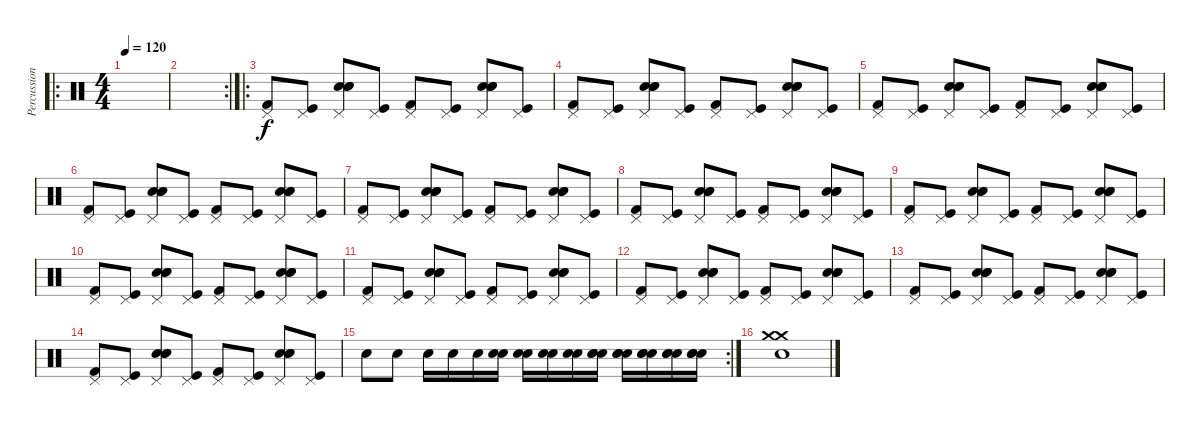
\track ("Percussions julien" "Percussion") {instrument percussion}
\staff {score}
\articulation defaults
\ro
\ts (4 4)
\tempo 120
\clef neutral
\ks c
|
\rc 2
|
\ro
("Kick (hit) 2" "Pedal Hi-Hat (hit)").8 ("Kick (hit)" "Pedal Hi-Hat (hit)").8 ("Electric Snare (hit)" "Electric Snare (hit)" "Pedal Hi-Hat (hit)" "Electric Snare (hit)").8 ("Kick (hit)" "Pedal Hi-Hat (hit)").8 ("Kick (hit) 2" "Pedal Hi-Hat (hit)").8 ("Kick (hit)" "Pedal Hi-Hat (hit)").8 ("Electric Snare (hit)" "Electric Snare (hit)" "Pedal Hi-Hat (hit)" "Electric Snare (hit)").8 ("Kick (hit)" "Pedal Hi-Hat (hit)").8 |
("Kick (hit) 2" "Pedal Hi-Hat (hit)").8 ("Kick (hit)" "Pedal Hi-Hat (hit)").8 ("Electric Snare (hit)" "Electric Snare (hit)" "Pedal Hi-Hat (hit)" "Electric Snare (hit)").8 ("Kick (hit)" "Pedal Hi-Hat (hit)").8 ("Kick (hit) 2" "Pedal Hi-Hat (hit)").8 ("Kick (hit)" "Pedal Hi-Hat (hit)").8 ("Electric Snare (hit)" "Electric Snare (hit)" "Pedal Hi-Hat (hit)" "Electric Snare (hit)").8 ("Kick (hit)" "Pedal Hi-Hat (hit)").8 |
("Kick (hit) 2" "Pedal Hi-Hat (hit)").8 ("Kick (hit)" "Pedal Hi-Hat (hit)").8 ("Electric Snare (hit)" "Electric Snare (hit)" "Pedal Hi-Hat (hit)" "Electric Snare (hit)").8 ("Kick (hit)" "Pedal Hi-Hat (hit)").8 ("Kick (hit) 2" "Pedal Hi-Hat (hit)").8 ("Kick (hit)" "Pedal Hi-Hat (hit)").8 ("Electric Snare (hit)" "Electric Snare (hit)" "Pedal Hi-Hat (hit)" "Electric Snare (hit)").8 ("Kick (hit)" "Pedal Hi-Hat (hit)").8 |
("Kick (hit) 2" "Pedal Hi-Hat (hit)").8 ("Kick (hit)" "Pedal Hi-Hat (hit)").8 ("Electric Snare (hit)" "Electric Snare (hit)" "Pedal Hi-Hat (hit)" "Electric Snare (hit)").8 ("Kick (hit)" "Pedal Hi-Hat (hit)").8 ("Kick (hit) 2" "Pedal Hi-Hat (hit)").8 ("Kick (hit)" "Pedal Hi-Hat (hit)").8 ("Electric Snare (hit)" "Electric Snare (hit)" "Pedal Hi-Hat (hit)" "Electric Snare (hit)").8 ("Kick (hit)" "Pedal Hi-Hat (hit)").8 |
("Kick (hit) 2" "Pedal Hi-Hat (hit)").8 ("Kick (hit)" "Pedal Hi-Hat (hit)").8 ("Electric Snare (hit)" "Electric Snare (hit)" "Pedal Hi-Hat (hit)" "Electric Snare (hit)").8 ("Kick (hit)" "Pedal Hi-Hat (hit)").8 ("Kick (hit) 2" "Pedal Hi-Hat (hit)").8 ("Kick (hit)" "Pedal Hi-Hat (hit)").8 ("Electric Snare (hit)" "Electric Snare (hit)" "Pedal Hi-Hat (hit)" "Electric Snare (hit)").8 ("Kick (hit)" "Pedal Hi-Hat (hit)").8 |
("Kick (hit) 2" "Pedal Hi-Hat (hit)").8 ("Kick (hit)" "Pedal Hi-Hat (hit)").8 ("Electric Snare (hit)" "Electric Snare (hit)" "Pedal Hi-Hat (hit)" "Electric Snare (hit)").8 ("Kick (hit)" "Pedal Hi-Hat (hit)").8 ("Kick (hit) 2" "Pedal Hi-Hat (hit)").8 ("Kick (hit)" "Pedal Hi-Hat (hit)").8 ("Electric Snare (hit)" "Electric Snare (hit)" "Pedal Hi-Hat (hit)" "Electric Snare (hit)").8 ("Kick (hit)" "Pedal Hi-Hat (hit)").8 |
("Kick (hit) 2" "Pedal Hi-Hat (hit)").8 ("Kick (hit)" "Pedal Hi-Hat (hit)").8 ("Electric Snare (hit)" "Electric Snare (hit)" "Pedal Hi-Hat (hit)" "Electric Snare (hit)").8 ("Kick (hit)" "Pedal Hi-Hat (hit)").8 ("Kick (hit) 2" "Pedal Hi-Hat (hit)").8 ("Kick (hit)" "Pedal Hi-Hat (hit)").8 ("Electric Snare (hit)" "Electric Snare (hit)" "Pedal Hi-Hat (hit)" "Electric Snare (hit)").8 ("Kick (hit)" "Pedal Hi-Hat (hit)").8 |
("Kick (hit) 2" "Pedal Hi-Hat (hit)").8 ("Kick (hit)" "Pedal Hi-Hat (hit)").8 ("Electric Snare (hit)" "Electric Snare (hit)" "Pedal Hi-Hat (hit)" "Electric Snare (hit)").8 ("Kick (hit)" "Pedal Hi-Hat (hit)").8 ("Kick (hit) 2" "Pedal Hi-Hat (hit)").8 ("Kick (hit)" "Pedal Hi-Hat (hit)").8 ("Electric Snare (hit)" "Electric Snare (hit)" "Pedal Hi-Hat (hit)" "Electric Snare (hit)").8 ("Kick (hit)" "Pedal Hi-Hat (hit)").8 |
("Kick (hit) 2" "Pedal Hi-Hat (hit)").8 ("Kick (hit)" "Pedal Hi-Hat (hit)").8 ("Electric Snare (hit)" "Electric Snare (hit)" "Pedal Hi-Hat (hit)" "Electric Snare (hit)").8 ("Kick (hit)" "Pedal Hi-Hat (hit)").8 ("Kick (hit) 2" "Pedal Hi-Hat (hit)").8 ("Kick (hit)" "Pedal Hi-Hat (hit)").8 ("Electric Snare (hit)" "Electric Snare (hit)" "Pedal Hi-Hat (hit)" "Electric Snare (hit)").8 ("Kick (hit)" "Pedal Hi-Hat (hit)").8 |
("Kick (hit) 2" "Pedal Hi-Hat (hit)").8 ("Kick (hit)" "Pedal Hi-Hat (hit)").8 ("Electric Snare (hit)" "Electric Snare (hit)" "Pedal Hi-Hat (hit)" "Electric Snare (hit)").8 ("Kick (hit)" "Pedal Hi-Hat (hit)").8 ("Kick (hit) 2" "Pedal Hi-Hat (hit)").8 ("Kick (hit)" "Pedal Hi-Hat (hit)").8 ("Electric Snare (hit)" "Electric Snare (hit)" "Pedal Hi-Hat (hit)" "Electric Snare (hit)").8 ("Kick (hit)" "Pedal Hi-Hat (hit)").8 |
("Kick (hit) 2" "Pedal Hi-Hat (hit)").8 ("Kick (hit)" "Pedal Hi-Hat (hit)").8 ("Electric Snare (hit)" "Electric Snare (hit)" "Pedal Hi-Hat (hit)" "Electric Snare (hit)").8 ("Kick (hit)" "Pedal Hi-Hat (hit)").8 ("Kick (hit) 2" "Pedal Hi-Hat (hit)").8 ("Kick (hit)" "Pedal Hi-Hat (hit)").8 ("Electric Snare (hit)" "Electric Snare (hit)" "Pedal Hi-Hat (hit)" "Electric Snare (hit)").8 ("Kick (hit)" "Pedal Hi-Hat (hit)").8 |
("Kick (hit) 2" "Pedal Hi-Hat (hit)").8 ("Kick (hit)" "Pedal Hi-Hat (hit)").8 ("Electric Snare (hit)" "Electric Snare (hit)" "Pedal Hi-Hat (hit)" "Electric Snare (hit)").8 ("Kick (hit)" "Pedal Hi-Hat (hit)").8 ("Kick (hit) 2" "Pedal Hi-Hat (hit)").8 ("Kick (hit)" "Pedal Hi-Hat (hit)").8 ("Electric Snare (hit)" "Electric Snare (hit)" "Pedal Hi-Hat (hit)" "Electric Snare (hit)").8 ("Kick (hit)" "Pedal Hi-Hat (hit)").8 |
\rc 2 "Electric Snare (hit)".8 "Electric Snare (hit)".8 "Electric Snare (hit)".16 "Electric Snare (hit)".16 "Electric Snare (hit)".16
("Electric Snare (hit)" "Electric Snare (hit)").16 ("Electric Snare (hit)" "Electric Snare (hit)").16 ("Electric Snare (hit)" "Electric Snare (hit)").16 ("Electric Snare (hit)" "Electric Snare (hit)").16 ("Electric Snare (hit)" "Electric Snare (hit)" "Electric Snare (hit)").16 ("Electric Snare (hit)" "Electric Snare (hit)" "Electric Snare (hit)").16 ("Electric Snare (hit)" "Electric Snare (hit)" "Electric Snare (hit)").16 ("Electric Snare (hit)" "Electric Snare (hit)" "Electric Snare (hit)").16 ("Electric Snare (hit)" "Electric Snare (hit)" "Electric Snare (hit)").16 |
("Crash medium (hit)" "Electric Snare (hit)" "Crash medium (hit)").1
